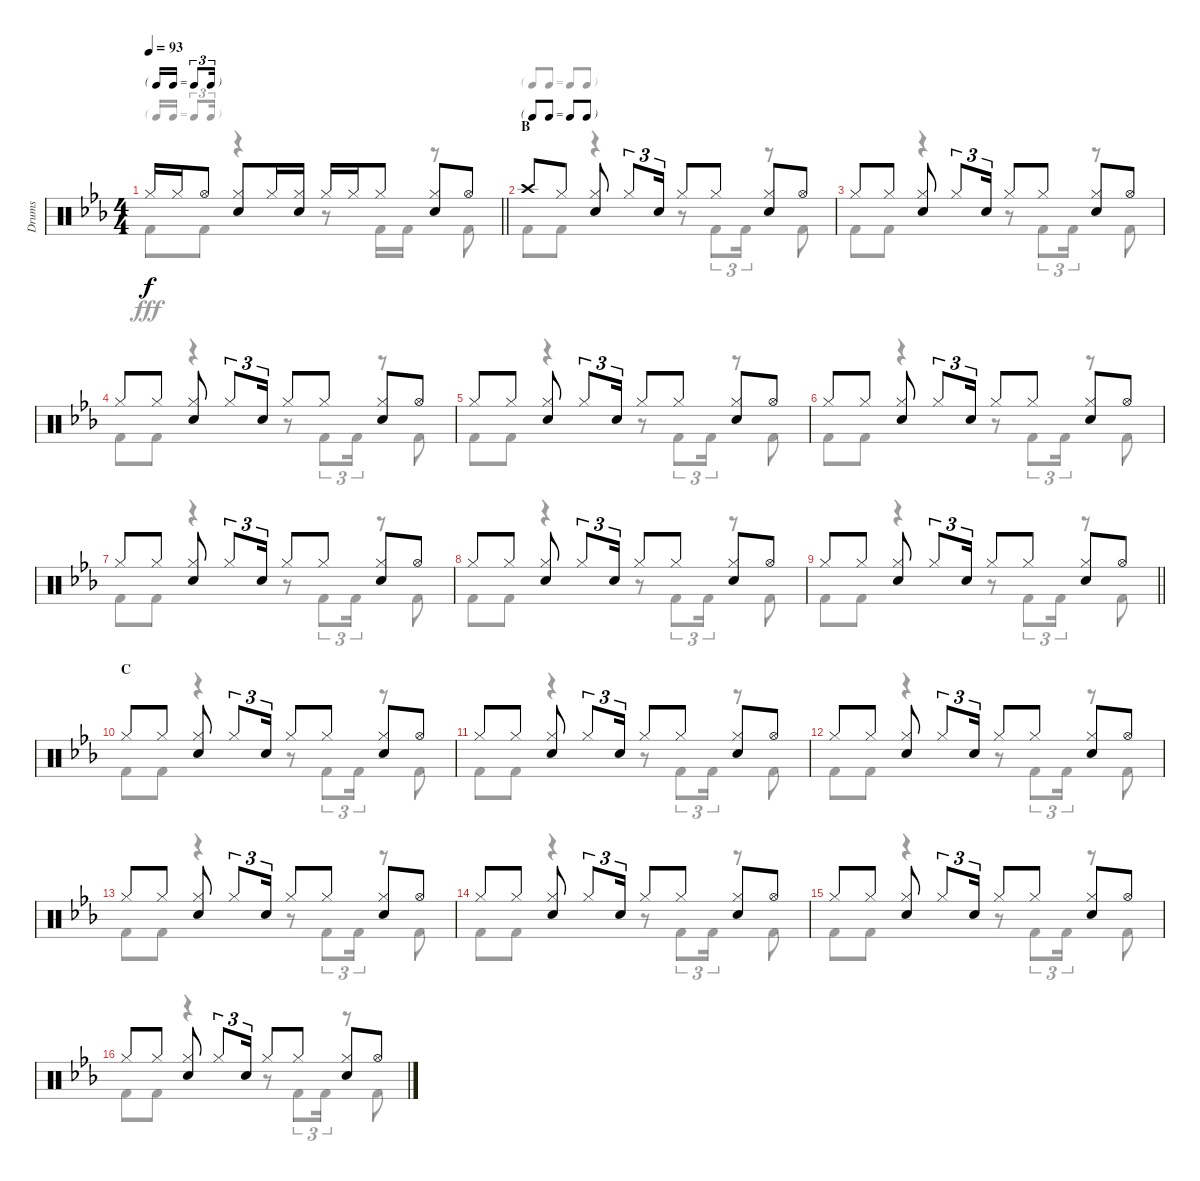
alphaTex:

\track ("Drums" "Drums") {instrument percussion}
\staff {score}
\articulation defaults
\voice
\ts (4 4)
\tf triplet16th
\tempo 93
\clef neutral
\barLineRight lightlight
\ks eb "Hi-Hat (closed)".16{dy f} "Hi-Hat (closed)".16 "Hi-Hat (open)".8
("Hi-Hat (closed)" "Snare (hit) 2").8 "Hi-Hat (closed)".16 ("Hi-Hat (closed)" "Snare (hit) 2").16 "Hi-Hat (closed)".16 "Hi-Hat (closed)".16 "Hi-Hat (closed)".8 ("Hi-Hat (closed)" "Snare (hit) 2").8 "Hi-Hat (open)".8 |
\tf none
\section ("" "B")
"Crash high (hit)".8 "Hi-Hat (closed)".8 ("Hi-Hat (closed)" "Snare (hit) 2").8 "Hi-Hat (closed)".8{tu (3 2)} "Snare (hit) 2".16{tu (3 2)} "Hi-Hat (closed)".8 "Hi-Hat (closed)".8 ("Hi-Hat (closed)" "Snare (hit) 2").8 "Hi-Hat (open)".8 |
"Hi-Hat (closed)".8 "Hi-Hat (closed)".8 ("Hi-Hat (closed)" "Snare (hit) 2").8 "Hi-Hat (closed)".8{tu (3 2)} "Snare (hit) 2".16{tu (3 2)} "Hi-Hat (closed)".8 "Hi-Hat (closed)".8 ("Hi-Hat (closed)" "Snare (hit) 2").8 "Hi-Hat (open)".8 |
"Hi-Hat (closed)".8 "Hi-Hat (closed)".8 ("Hi-Hat (closed)" "Snare (hit) 2").8 "Hi-Hat (closed)".8{tu (3 2)} "Snare (hit) 2".16{tu (3 2)} "Hi-Hat (closed)".8 "Hi-Hat (closed)".8 ("Hi-Hat (closed)" "Snare (hit) 2").8 "Hi-Hat (open)".8 |
"Hi-Hat (closed)".8 "Hi-Hat (closed)".8 ("Hi-Hat (closed)" "Snare (hit) 2").8 "Hi-Hat (closed)".8{tu (3 2)} "Snare (hit) 2".16{tu (3 2)} "Hi-Hat (closed)".8 "Hi-Hat (closed)".8 ("Hi-Hat (closed)" "Snare (hit) 2").8 "Hi-Hat (open)".8 |
"Hi-Hat (closed)".8 "Hi-Hat (closed)".8 ("Hi-Hat (closed)" "Snare (hit) 2").8 "Hi-Hat (closed)".8{tu (3 2)} "Snare (hit) 2".16{tu (3 2)} "Hi-Hat (closed)".8 "Hi-Hat (closed)".8 ("Hi-Hat (closed)" "Snare (hit) 2").8 "Hi-Hat (open)".8 |
"Hi-Hat (closed)".8 "Hi-Hat (closed)".8 ("Hi-Hat (closed)" "Snare (hit) 2").8 "Hi-Hat (closed)".8{tu (3 2)} "Snare (hit) 2".16{tu (3 2)} "Hi-Hat (closed)".8 "Hi-Hat (closed)".8 ("Hi-Hat (closed)" "Snare (hit) 2").8 "Hi-Hat (open)".8 |
"Hi-Hat (closed)".8 "Hi-Hat (closed)".8 ("Hi-Hat (closed)" "Snare (hit) 2").8 "Hi-Hat (closed)".8{tu (3 2)} "Snare (hit) 2".16{tu (3 2)} "Hi-Hat (closed)".8 "Hi-Hat (closed)".8 ("Hi-Hat (closed)" "Snare (hit) 2").8 "Hi-Hat (open)".8 |
\barLineRight lightlight "Hi-Hat (closed)".8 "Hi-Hat (closed)".8
("Hi-Hat (closed)" "Snare (hit) 2").8 "Hi-Hat (closed)".8{tu (3 2)} "Snare (hit) 2".16{tu (3 2)} "Hi-Hat (closed)".8 "Hi-Hat (closed)".8 ("Hi-Hat (closed)" "Snare (hit) 2").8 "Hi-Hat (open)".8 |
\section ("" "C")
"Hi-Hat (closed)".8 "Hi-Hat (closed)".8 ("Hi-Hat (closed)" "Snare (hit) 2").8 "Hi-Hat (closed)".8{tu (3 2)} "Snare (hit) 2".16{tu (3 2)} "Hi-Hat (closed)".8 "Hi-Hat (closed)".8 ("Hi-Hat (closed)" "Snare (hit) 2").8 "Hi-Hat (open)".8 |
"Hi-Hat (closed)".8 "Hi-Hat (closed)".8 ("Hi-Hat (closed)" "Snare (hit) 2").8 "Hi-Hat (closed)".8{tu (3 2)} "Snare (hit) 2".16{tu (3 2)} "Hi-Hat (closed)".8 "Hi-Hat (closed)".8 ("Hi-Hat (closed)" "Snare (hit) 2").8 "Hi-Hat (open)".8 |
"Hi-Hat (closed)".8 "Hi-Hat (closed)".8 ("Hi-Hat (closed)" "Snare (hit) 2").8 "Hi-Hat (closed)".8{tu (3 2)} "Snare (hit) 2".16{tu (3 2)} "Hi-Hat (closed)".8 "Hi-Hat (closed)".8 ("Hi-Hat (closed)" "Snare (hit) 2").8 "Hi-Hat (open)".8 |
"Hi-Hat (closed)".8 "Hi-Hat (closed)".8 ("Hi-Hat (closed)" "Snare (hit) 2").8 "Hi-Hat (closed)".8{tu (3 2)} "Snare (hit) 2".16{tu (3 2)} "Hi-Hat (closed)".8 "Hi-Hat (closed)".8 ("Hi-Hat (closed)" "Snare (hit) 2").8 "Hi-Hat (open)".8 |
"Hi-Hat (closed)".8 "Hi-Hat (closed)".8 ("Hi-Hat (closed)" "Snare (hit) 2").8 "Hi-Hat (closed)".8{tu (3 2)} "Snare (hit) 2".16{tu (3 2)} "Hi-Hat (closed)".8 "Hi-Hat (closed)".8 ("Hi-Hat (closed)" "Snare (hit) 2").8 "Hi-Hat (open)".8 |
"Hi-Hat (closed)".8 "Hi-Hat (closed)".8 ("Hi-Hat (closed)" "Snare (hit) 2").8 "Hi-Hat (closed)".8{tu (3 2)} "Snare (hit) 2".16{tu (3 2)} "Hi-Hat (closed)".8 "Hi-Hat (closed)".8 ("Hi-Hat (closed)" "Snare (hit) 2").8 "Hi-Hat (open)".8 |
"Hi-Hat (closed)".8 "Hi-Hat (closed)".8 ("Hi-Hat (closed)" "Snare (hit) 2").8 "Hi-Hat (closed)".8{tu (3 2)} "Snare (hit) 2".16{tu (3 2)} "Hi-Hat (closed)".8 "Hi-Hat (closed)".8 ("Hi-Hat (closed)" "Snare (hit) 2").8 "Hi-Hat (open)".8
\voice
\clef neutral
\ottava regular
\simile none
\barLineRight lightlight
\ks eb "Kick (hit) 2".8{dy fff} "Kick (hit) 2".8
r.4 r.8 "Kick (hit) 2".16 "Kick (hit) 2".16 r.8 "Kick (hit) 2".8 |
"Kick (hit) 2".8 "Kick (hit) 2".8 r.4 r.8 "Kick (hit) 2".8{tu (3 2)} "Kick (hit) 2".16{tu (3 2)} r.8 "Kick (hit) 2".8 |
"Kick (hit) 2".8 "Kick (hit) 2".8 r.4 r.8 "Kick (hit) 2".8{tu (3 2)} "Kick (hit) 2".16{tu (3 2)} r.8 "Kick (hit) 2".8 |
"Kick (hit) 2".8 "Kick (hit) 2".8 r.4 r.8 "Kick (hit) 2".8{tu (3 2)} "Kick (hit) 2".16{tu (3 2)} r.8 "Kick (hit) 2".8 |
"Kick (hit) 2".8 "Kick (hit) 2".8 r.4 r.8 "Kick (hit) 2".8{tu (3 2)} "Kick (hit) 2".16{tu (3 2)} r.8 "Kick (hit) 2".8 |
"Kick (hit) 2".8 "Kick (hit) 2".8 r.4 r.8 "Kick (hit) 2".8{tu (3 2)} "Kick (hit) 2".16{tu (3 2)} r.8 "Kick (hit) 2".8 |
"Kick (hit) 2".8 "Kick (hit) 2".8 r.4 r.8 "Kick (hit) 2".8{tu (3 2)} "Kick (hit) 2".16{tu (3 2)} r.8 "Kick (hit) 2".8 |
"Kick (hit) 2".8 "Kick (hit) 2".8 r.4 r.8 "Kick (hit) 2".8{tu (3 2)} "Kick (hit) 2".16{tu (3 2)} r.8 "Kick (hit) 2".8 |
\barLineRight lightlight "Kick (hit) 2".8 "Kick (hit) 2".8
r.4 r.8 "Kick (hit) 2".8{tu (3 2)} "Kick (hit) 2".16{tu (3 2)} r.8 "Kick (hit) 2".8 |
"Kick (hit) 2".8 "Kick (hit) 2".8 r.4 r.8 "Kick (hit) 2".8{tu (3 2)} "Kick (hit) 2".16{tu (3 2)} r.8 "Kick (hit) 2".8 |
"Kick (hit) 2".8 "Kick (hit) 2".8 r.4 r.8 "Kick (hit) 2".8{tu (3 2)} "Kick (hit) 2".16{tu (3 2)} r.8 "Kick (hit) 2".8 |
"Kick (hit) 2".8 "Kick (hit) 2".8 r.4 r.8 "Kick (hit) 2".8{tu (3 2)} "Kick (hit) 2".16{tu (3 2)} r.8 "Kick (hit) 2".8 |
"Kick (hit) 2".8 "Kick (hit) 2".8 r.4 r.8 "Kick (hit) 2".8{tu (3 2)} "Kick (hit) 2".16{tu (3 2)} r.8 "Kick (hit) 2".8 |
"Kick (hit) 2".8 "Kick (hit) 2".8 r.4 r.8 "Kick (hit) 2".8{tu (3 2)} "Kick (hit) 2".16{tu (3 2)} r.8 "Kick (hit) 2".8 |
"Kick (hit) 2".8 "Kick (hit) 2".8 r.4 r.8 "Kick (hit) 2".8{tu (3 2)} "Kick (hit) 2".16{tu (3 2)} r.8 "Kick (hit) 2".8 |
"Kick (hit) 2".8 "Kick (hit) 2".8 r.4 r.8 "Kick (hit) 2".8{tu (3 2)} "Kick (hit) 2".16{tu (3 2)} r.8 "Kick (hit) 2".8
